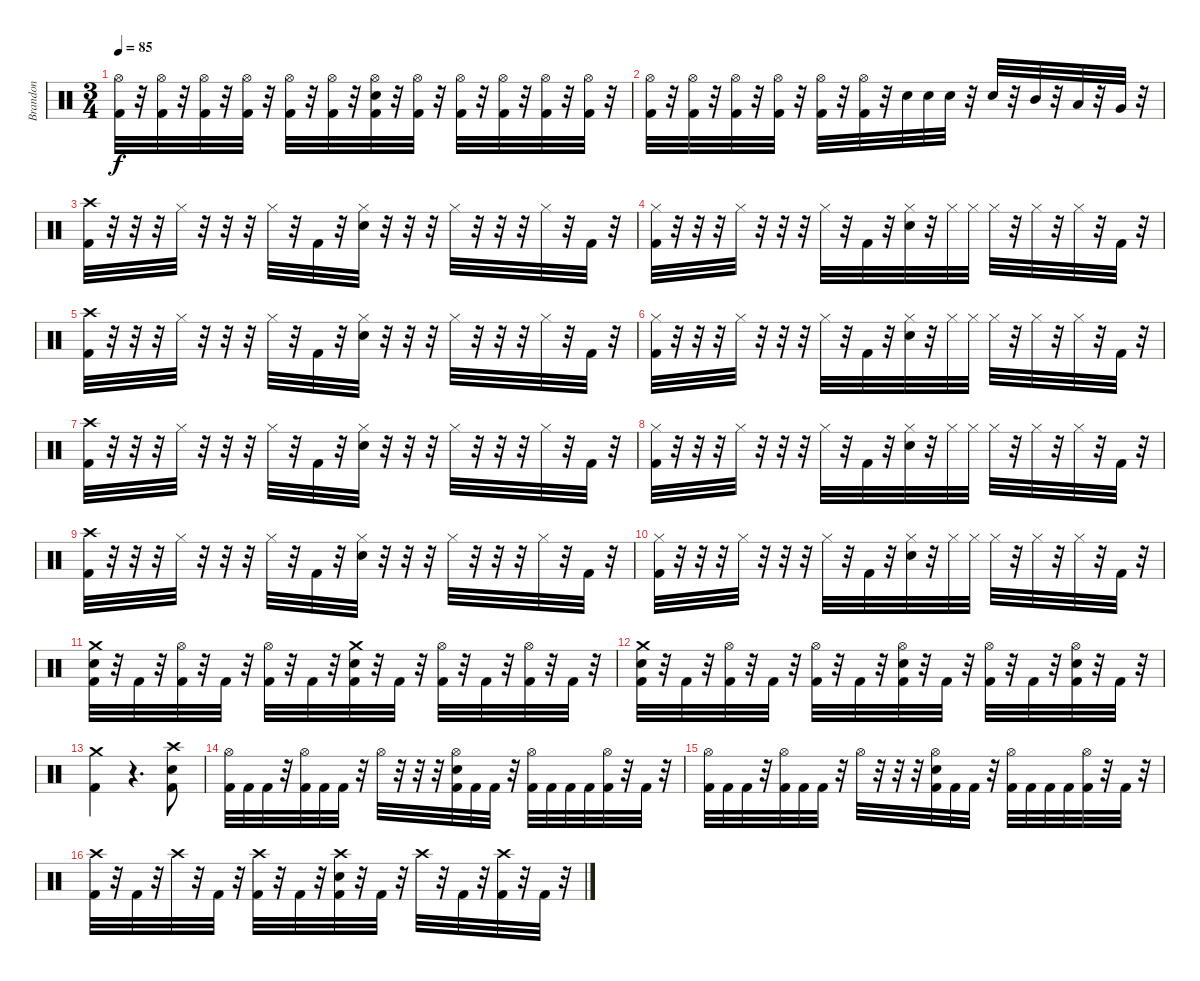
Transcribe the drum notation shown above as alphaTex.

\track ("Brandon" "Brandon") {instrument percussion}
\staff {score}
\articulation defaults
\ts (3 4)
\tempo 85
\clef neutral
\ks c
("Hi-Hat (open)" "Kick (hit) 2").32{dy f} r.32 ("Hi-Hat (open)" "Kick (hit) 2").32 r.32 ("Hi-Hat (open)" "Kick (hit) 2").32 r.32 ("Hi-Hat (open)" "Kick (hit) 2").32 r.32 ("Hi-Hat (open)" "Kick (hit) 2").32 r.32 ("Hi-Hat (open)" "Kick (hit) 2").32 r.32 ("Hi-Hat (open)" "Electric Snare (hit)" "Kick (hit) 2").32 r.32 ("Hi-Hat (open)" "Kick (hit) 2").32 r.32 ("Hi-Hat (open)" "Kick (hit) 2").32 r.32 ("Hi-Hat (open)" "Kick (hit) 2").32 r.32 ("Hi-Hat (open)" "Kick (hit) 2").32 r.32 ("Hi-Hat (open)" "Kick (hit) 2").32 r.32 |
("Hi-Hat (open)" "Kick (hit) 2").32 r.32 ("Hi-Hat (open)" "Kick (hit) 2").32 r.32 ("Hi-Hat (open)" "Kick (hit) 2").32 r.32 ("Hi-Hat (open)" "Kick (hit) 2").32 r.32 ("Hi-Hat (open)" "Kick (hit) 2").32 r.32 ("Hi-Hat (open)" "Kick (hit) 2").32 r.32 "Electric Snare (hit)".32 "Electric Snare (hit)".32 "Electric Snare (hit)".32 r.32 "Electric Snare (hit)".32 r.32 "Mid Tom (hit)".32 r.32 "Low Tom (hit)".32 r.32 "Very Low Tom (hit)".32 r.32 |
("Crash high (hit)" "Kick (hit) 2").32 r.32 r.32 r.32 "Hi-Hat (closed)".32 r.32 r.32 r.32 "Hi-Hat (closed)".32 r.32 "Kick (hit) 2".32 r.32 ("Hi-Hat (closed)" "Electric Snare (hit)").32 r.32 r.32 r.32 "Hi-Hat (closed)".32 r.32 r.32 r.32 "Hi-Hat (closed)".32 r.32 "Kick (hit) 2".32 r.32 |
("Hi-Hat (closed)" "Kick (hit) 2").32 r.32 r.32 r.32 "Hi-Hat (closed)".32 r.32 r.32 r.32 "Hi-Hat (closed)".32 r.32 "Kick (hit) 2".32 r.32 ("Hi-Hat (closed)" "Electric Snare (hit)").32 r.32 "Hi-Hat (closed)".32 "Hi-Hat (closed)".32 "Hi-Hat (closed)".32 r.32 "Hi-Hat (closed)".32 r.32 "Hi-Hat (closed)".32 r.32 "Kick (hit) 2".32 r.32 |
("Crash high (hit)" "Kick (hit) 2").32 r.32 r.32 r.32 "Hi-Hat (closed)".32 r.32 r.32 r.32 "Hi-Hat (closed)".32 r.32 "Kick (hit) 2".32 r.32 ("Hi-Hat (closed)" "Electric Snare (hit)").32 r.32 r.32 r.32 "Hi-Hat (closed)".32 r.32 r.32 r.32 "Hi-Hat (closed)".32 r.32 "Kick (hit) 2".32 r.32 |
("Hi-Hat (closed)" "Kick (hit) 2").32 r.32 r.32 r.32 "Hi-Hat (closed)".32 r.32 r.32 r.32 "Hi-Hat (closed)".32 r.32 "Kick (hit) 2".32 r.32 ("Hi-Hat (closed)" "Electric Snare (hit)").32 r.32 "Hi-Hat (closed)".32 "Hi-Hat (closed)".32 "Hi-Hat (closed)".32 r.32 "Hi-Hat (closed)".32 r.32 "Hi-Hat (closed)".32 r.32 "Kick (hit) 2".32 r.32 |
("Crash high (hit)" "Kick (hit) 2").32 r.32 r.32 r.32 "Hi-Hat (closed)".32 r.32 r.32 r.32 "Hi-Hat (closed)".32 r.32 "Kick (hit) 2".32 r.32 ("Hi-Hat (closed)" "Electric Snare (hit)").32 r.32 r.32 r.32 "Hi-Hat (closed)".32 r.32 r.32 r.32 "Hi-Hat (closed)".32 r.32 "Kick (hit) 2".32 r.32 |
("Hi-Hat (closed)" "Kick (hit) 2").32 r.32 r.32 r.32 "Hi-Hat (closed)".32 r.32 r.32 r.32 "Hi-Hat (closed)".32 r.32 "Kick (hit) 2".32 r.32 ("Hi-Hat (closed)" "Electric Snare (hit)").32 r.32 "Hi-Hat (closed)".32 "Hi-Hat (closed)".32 "Hi-Hat (closed)".32 r.32 "Hi-Hat (closed)".32 r.32 "Hi-Hat (closed)".32 r.32 "Kick (hit) 2".32 r.32 |
("Crash high (hit)" "Kick (hit) 2").32 r.32 r.32 r.32 "Hi-Hat (closed)".32 r.32 r.32 r.32 "Hi-Hat (closed)".32 r.32 "Kick (hit) 2".32 r.32 ("Hi-Hat (closed)" "Electric Snare (hit)").32 r.32 r.32 r.32 "Hi-Hat (closed)".32 r.32 r.32 r.32 "Hi-Hat (closed)".32 r.32 "Kick (hit) 2".32 r.32 |
("Hi-Hat (closed)" "Kick (hit) 2").32 r.32 r.32 r.32 "Hi-Hat (closed)".32 r.32 r.32 r.32 "Hi-Hat (closed)".32 r.32 "Kick (hit) 2".32 r.32 ("Hi-Hat (closed)" "Electric Snare (hit)").32 r.32 "Hi-Hat (closed)".32 "Hi-Hat (closed)".32 "Hi-Hat (closed)".32 r.32 "Hi-Hat (closed)".32 r.32 "Hi-Hat (closed)".32 r.32 "Kick (hit) 2".32 r.32 |
("Crash medium (hit)" "Electric Snare (hit)" "Kick (hit) 2").32 r.32 "Kick (hit) 2".32 r.32 ("Hi-Hat (open)" "Kick (hit) 2").32 r.32 "Kick (hit) 2".32 r.32 ("Hi-Hat (open)" "Kick (hit) 2").32 r.32 "Kick (hit) 2".32 r.32 ("Crash medium (hit)" "Electric Snare (hit)" "Kick (hit) 2").32 r.32 "Kick (hit) 2".32 r.32 ("Hi-Hat (open)" "Kick (hit) 2").32 r.32 "Kick (hit) 2".32 r.32 ("Hi-Hat (open)" "Kick (hit) 2").32 r.32 "Kick (hit) 2".32 r.32 |
("Crash medium (hit)" "Electric Snare (hit)" "Kick (hit) 2").32 r.32 "Kick (hit) 2".32 r.32 ("Hi-Hat (open)" "Kick (hit) 2").32 r.32 "Kick (hit) 2".32 r.32 ("Hi-Hat (open)" "Kick (hit) 2").32 r.32 "Kick (hit) 2".32 r.32 ("Hi-Hat (open)" "Electric Snare (hit)" "Kick (hit) 2").32 r.32 "Kick (hit) 2".32 r.32 ("Hi-Hat (open)" "Kick (hit) 2").32 r.32 "Kick (hit) 2".32 r.32 ("Hi-Hat (open)" "Electric Snare (hit)" "Kick (hit) 2").32 r.32 "Kick (hit) 2".32 r.32 |
("Crash medium (hit)" "Kick (hit) 2").4 r.4{d} ("Crash high (hit)" "Electric Snare (hit)" "Kick (hit) 2").8 |
("Hi-Hat (open)" "Kick (hit) 2").32 "Kick (hit) 2".32 "Kick (hit) 2".32 r.32 ("Hi-Hat (open)" "Kick (hit) 2").32 "Kick (hit) 2".32 "Kick (hit) 2".32 r.32 "Hi-Hat (open)".32 r.32 r.32 r.32 ("Hi-Hat (open)" "Electric Snare (hit)" "Kick (hit) 2").32 "Kick (hit) 2".32 "Kick (hit) 2".32 r.32 ("Hi-Hat (open)" "Kick (hit) 2").32 "Kick (hit) 2".32 "Kick (hit) 2".32 "Kick (hit) 2".32 ("Hi-Hat (open)" "Kick (hit) 2").32 r.32 "Kick (hit) 2".32 r.32 |
("Hi-Hat (open)" "Kick (hit) 2").32 "Kick (hit) 2".32 "Kick (hit) 2".32 r.32 ("Hi-Hat (open)" "Kick (hit) 2").32 "Kick (hit) 2".32 "Kick (hit) 2".32 r.32 "Hi-Hat (open)".32 r.32 r.32 r.32 ("Hi-Hat (open)" "Electric Snare (hit)" "Kick (hit) 2").32 "Kick (hit) 2".32 "Kick (hit) 2".32 r.32 ("Hi-Hat (open)" "Kick (hit) 2").32 "Kick (hit) 2".32 "Kick (hit) 2".32 "Kick (hit) 2".32 ("Hi-Hat (open)" "Kick (hit) 2").32 r.32 "Kick (hit) 2".32 r.32 |
("Crash high (hit)" "Kick (hit) 2").32 r.32 "Kick (hit) 2".32 r.32 "Crash high (hit)".32 r.32 "Kick (hit) 2".32 r.32 ("Crash high (hit)" "Kick (hit) 2").32 r.32 "Kick (hit) 2".32 r.32 ("Crash high (hit)" "Electric Snare (hit)" "Kick (hit) 2").32 r.32 "Kick (hit) 2".32 r.32 "Crash high (hit)".32 r.32 "Kick (hit) 2".32 r.32 ("Crash high (hit)" "Kick (hit) 2").32 r.32 "Kick (hit) 2".32 r.32
